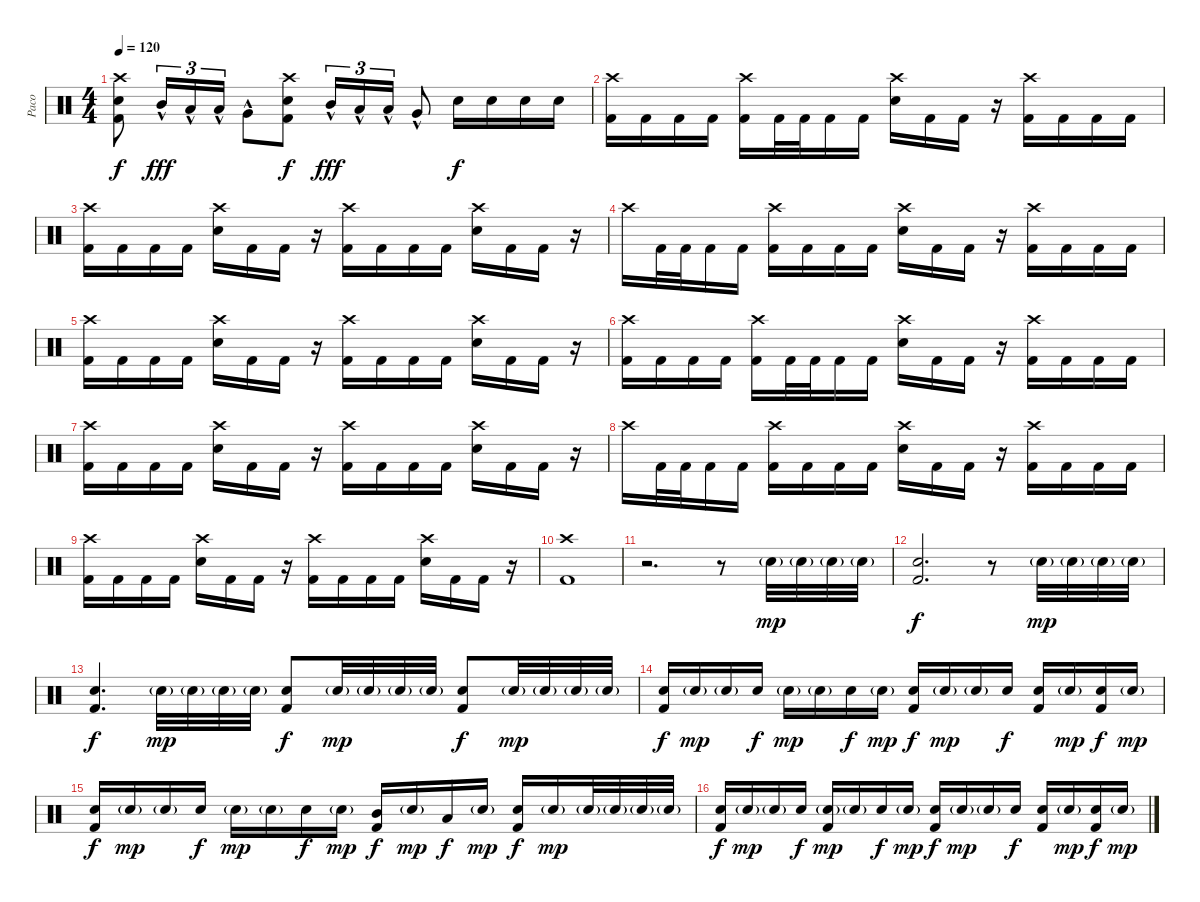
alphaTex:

\track ("Paco" "Paco") {instrument percussion}
\staff {score}
\articulation defaults
\ts (4 4)
\tempo 120
\clef neutral
\ks c
("Crash high (hit)" "Electric Snare (hit)" "Kick (hit) 2").8{dy f} "Mid Tom (hit)"{hac}.16{tu (3 2) dy fff} "Low Tom (hit)"{hac}.16{tu (3 2)} "Low Tom (hit)"{hac}.16{tu (3 2)} "Very Low Tom (hit)"{hac}.8 ("Crash high (hit)" "Electric Snare (hit)" "Kick (hit) 2").8{dy f} "Mid Tom (hit)"{hac}.16{tu (3 2) dy fff} "Low Tom (hit)"{hac}.16{tu (3 2)} "Low Tom (hit)"{hac}.16{tu (3 2)} "Very Low Tom (hit)"{hac}.8 "Electric Snare (hit)".16{dy f} "Electric Snare (hit)".16 "Electric Snare (hit)".16 "Electric Snare (hit)".16 |
("Crash high (hit)" "Kick (hit) 2").16 "Kick (hit) 2".16 "Kick (hit) 2".16 "Kick (hit) 2".16 ("Crash high (hit)" "Kick (hit) 2").16 "Kick (hit) 2".32 "Kick (hit) 2".32 "Kick (hit) 2".16 "Kick (hit) 2".16 ("Crash high (hit)" "Electric Snare (hit)").16 "Kick (hit) 2".16 "Kick (hit) 2".16 r.16 ("Crash high (hit)" "Kick (hit) 2").16 "Kick (hit) 2".16 "Kick (hit) 2".16 "Kick (hit) 2".16 |
("Crash high (hit)" "Kick (hit) 2").16 "Kick (hit) 2".16 "Kick (hit) 2".16 "Kick (hit) 2".16 ("Crash high (hit)" "Electric Snare (hit)").16 "Kick (hit) 2".16 "Kick (hit) 2".16 r.16 ("Crash high (hit)" "Kick (hit) 2").16 "Kick (hit) 2".16 "Kick (hit) 2".16 "Kick (hit) 2".16 ("Crash high (hit)" "Electric Snare (hit)").16 "Kick (hit) 2".16 "Kick (hit) 2".16 r.16 |
"Crash high (hit)".16 "Kick (hit) 2".32 "Kick (hit) 2".32 "Kick (hit) 2".16 "Kick (hit) 2".16 ("Crash high (hit)" "Kick (hit) 2").16 "Kick (hit) 2".16 "Kick (hit) 2".16 "Kick (hit) 2".16 ("Crash high (hit)" "Electric Snare (hit)").16 "Kick (hit) 2".16 "Kick (hit) 2".16 r.16 ("Crash high (hit)" "Kick (hit) 2").16 "Kick (hit) 2".16 "Kick (hit) 2".16 "Kick (hit) 2".16 |
("Crash high (hit)" "Kick (hit) 2").16 "Kick (hit) 2".16 "Kick (hit) 2".16 "Kick (hit) 2".16 ("Crash high (hit)" "Electric Snare (hit)").16 "Kick (hit) 2".16 "Kick (hit) 2".16 r.16 ("Crash high (hit)" "Kick (hit) 2").16 "Kick (hit) 2".16 "Kick (hit) 2".16 "Kick (hit) 2".16 ("Crash high (hit)" "Electric Snare (hit)").16 "Kick (hit) 2".16 "Kick (hit) 2".16 r.16 |
("Crash high (hit)" "Kick (hit) 2").16 "Kick (hit) 2".16 "Kick (hit) 2".16 "Kick (hit) 2".16 ("Crash high (hit)" "Kick (hit) 2").16 "Kick (hit) 2".32 "Kick (hit) 2".32 "Kick (hit) 2".16 "Kick (hit) 2".16 ("Crash high (hit)" "Electric Snare (hit)").16 "Kick (hit) 2".16 "Kick (hit) 2".16 r.16 ("Crash high (hit)" "Kick (hit) 2").16 "Kick (hit) 2".16 "Kick (hit) 2".16 "Kick (hit) 2".16 |
("Crash high (hit)" "Kick (hit) 2").16 "Kick (hit) 2".16 "Kick (hit) 2".16 "Kick (hit) 2".16 ("Crash high (hit)" "Electric Snare (hit)").16 "Kick (hit) 2".16 "Kick (hit) 2".16 r.16 ("Crash high (hit)" "Kick (hit) 2").16 "Kick (hit) 2".16 "Kick (hit) 2".16 "Kick (hit) 2".16 ("Crash high (hit)" "Electric Snare (hit)").16 "Kick (hit) 2".16 "Kick (hit) 2".16 r.16 |
"Crash high (hit)".16 "Kick (hit) 2".32 "Kick (hit) 2".32 "Kick (hit) 2".16 "Kick (hit) 2".16 ("Crash high (hit)" "Kick (hit) 2").16 "Kick (hit) 2".16 "Kick (hit) 2".16 "Kick (hit) 2".16 ("Crash high (hit)" "Electric Snare (hit)").16 "Kick (hit) 2".16 "Kick (hit) 2".16 r.16 ("Crash high (hit)" "Kick (hit) 2").16 "Kick (hit) 2".16 "Kick (hit) 2".16 "Kick (hit) 2".16 |
("Crash high (hit)" "Kick (hit) 2").16 "Kick (hit) 2".16 "Kick (hit) 2".16 "Kick (hit) 2".16 ("Crash high (hit)" "Electric Snare (hit)").16 "Kick (hit) 2".16 "Kick (hit) 2".16 r.16 ("Crash high (hit)" "Kick (hit) 2").16 "Kick (hit) 2".16 "Kick (hit) 2".16 "Kick (hit) 2".16 ("Crash high (hit)" "Electric Snare (hit)").16 "Kick (hit) 2".16 "Kick (hit) 2".16 r.16 |
("Crash high (hit)" "Kick (hit) 2").1 |
r.2{d} r.8 "Electric Snare (hit)"{g}.32{dy mp} "Electric Snare (hit)"{g}.32 "Electric Snare (hit)"{g}.32 "Electric Snare (hit)"{g}.32 |
("Electric Snare (hit)" "Kick (hit) 2").2{d dy f} r.8 "Electric Snare (hit)"{g}.32{dy mp} "Electric Snare (hit)"{g}.32 "Electric Snare (hit)"{g}.32 "Electric Snare (hit)"{g}.32 |
("Electric Snare (hit)" "Kick (hit) 2").4{d dy f} "Electric Snare (hit)"{g}.32{dy mp} "Electric Snare (hit)"{g}.32 "Electric Snare (hit)"{g}.32 "Electric Snare (hit)"{g}.32 ("Electric Snare (hit)" "Kick (hit) 2").8{dy f} "Electric Snare (hit)"{g}.32{dy mp} "Electric Snare (hit)"{g}.32 "Electric Snare (hit)"{g}.32 "Electric Snare (hit)"{g}.32 ("Electric Snare (hit)" "Kick (hit) 2").8{dy f} "Electric Snare (hit)"{g}.32{dy mp} "Electric Snare (hit)"{g}.32 "Electric Snare (hit)"{g}.32 "Electric Snare (hit)"{g}.32 |
("Electric Snare (hit)" "Kick (hit) 2").16{dy f} "Electric Snare (hit)"{g}.16{dy mp} "Electric Snare (hit)"{g}.16 "Electric Snare (hit)".16{dy f} "Electric Snare (hit)"{g}.16{dy mp} "Electric Snare (hit)"{g}.16 "Electric Snare (hit)".16{dy f} "Electric Snare (hit)"{g}.16{dy mp} ("Electric Snare (hit)" "Kick (hit) 2").16{dy f} "Electric Snare (hit)"{g}.16{dy mp} "Electric Snare (hit)"{g}.16 "Electric Snare (hit)".16{dy f} ("Electric Snare (hit)" "Kick (hit) 2").16 "Electric Snare (hit)"{g}.16{dy mp} ("Electric Snare (hit)" "Kick (hit) 2").16{dy f} "Electric Snare (hit)"{g}.16{dy mp} |
("Electric Snare (hit)" "Kick (hit) 2").16{dy f} "Electric Snare (hit)"{g}.16{dy mp} "Electric Snare (hit)"{g}.16 "Electric Snare (hit)".16{dy f} "Electric Snare (hit)"{g}.16{dy mp} "Electric Snare (hit)"{g}.16 "Electric Snare (hit)".16{dy f} "Electric Snare (hit)"{g}.16{dy mp} ("Mid Tom (hit)" "Kick (hit) 2").16{dy f} "Electric Snare (hit)"{g}.16{dy mp} "Low Tom (hit)".16{dy f} "Electric Snare (hit)"{g}.16{dy mp} ("Electric Snare (hit)" "Kick (hit) 2").16{dy f} "Electric Snare (hit)"{g}.16{dy mp} "Electric Snare (hit)"{g}.32 "Electric Snare (hit)"{g}.32 "Electric Snare (hit)"{g}.32 "Electric Snare (hit)"{g}.32 |
("Electric Snare (hit)" "Kick (hit) 2").16{dy f} "Electric Snare (hit)"{g}.16{dy mp} "Electric Snare (hit)"{g}.16 "Electric Snare (hit)".16{dy f} ("Electric Snare (hit)"{g} "Kick (hit) 2").16{dy mp} "Electric Snare (hit)"{g}.16 "Electric Snare (hit)".16{dy f} "Electric Snare (hit)"{g}.16{dy mp} ("Electric Snare (hit)" "Kick (hit) 2").16{dy f} "Electric Snare (hit)"{g}.16{dy mp} "Electric Snare (hit)"{g}.16 "Electric Snare (hit)".16{dy f} ("Electric Snare (hit)" "Kick (hit) 2").16 "Electric Snare (hit)"{g}.16{dy mp} ("Electric Snare (hit)" "Kick (hit) 2").16{dy f} "Electric Snare (hit)"{g}.16{dy mp}
